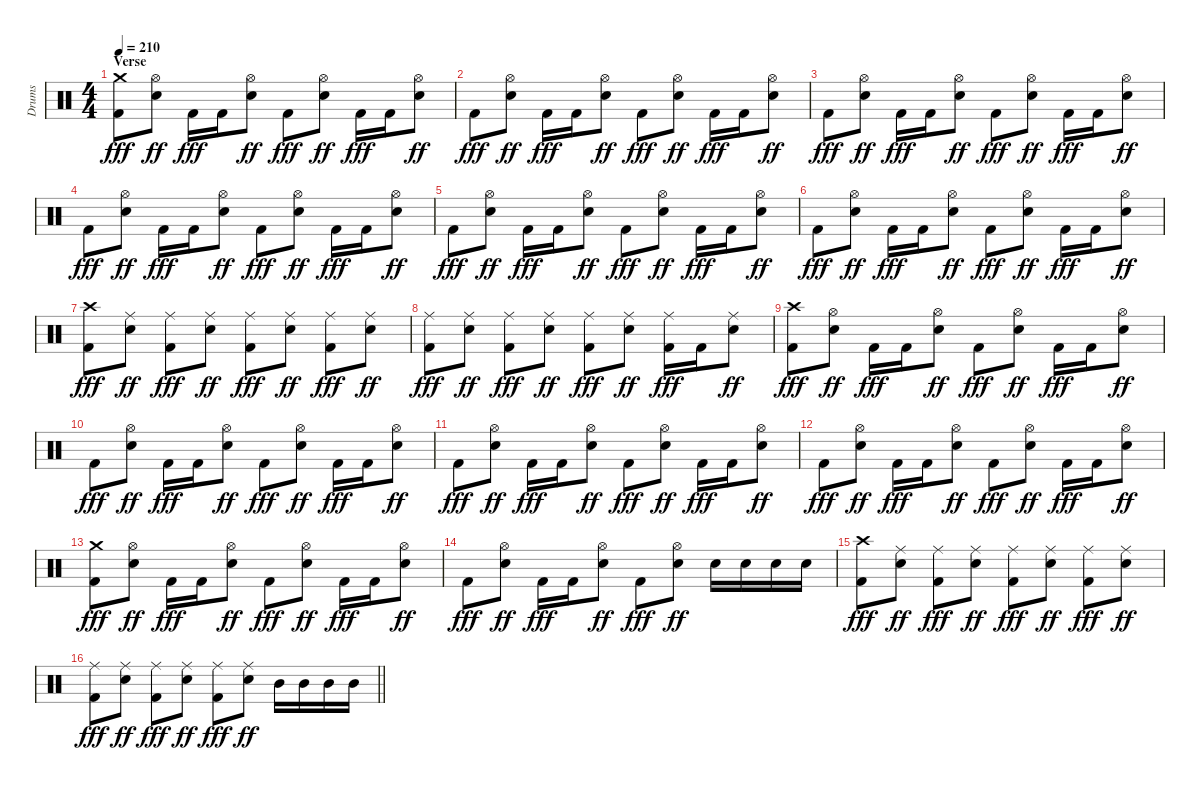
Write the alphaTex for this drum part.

\track ("Drums" "Drums") {instrument percussion}
\staff {score}
\articulation defaults
\ts (4 4)
\section ("" "Verse")
\tempo 210
\clef neutral
\ks c
("Crash medium (hit)" "Kick (hit) 2").8{dy fff} ("Hi-Hat (open)" "Snare (hit) 2").8{dy ff} "Kick (hit) 2".16{dy fff} "Kick (hit) 2".16 ("Hi-Hat (open)" "Snare (hit) 2").8{dy ff} "Kick (hit) 2".8{dy fff} ("Hi-Hat (open)" "Snare (hit) 2").8{dy ff} "Kick (hit) 2".16{dy fff} "Kick (hit) 2".16 ("Hi-Hat (open)" "Snare (hit) 2").8{dy ff} |
"Kick (hit) 2".8{dy fff} ("Hi-Hat (open)" "Snare (hit) 2").8{dy ff} "Kick (hit) 2".16{dy fff} "Kick (hit) 2".16 ("Hi-Hat (open)" "Snare (hit) 2").8{dy ff} "Kick (hit) 2".8{dy fff} ("Hi-Hat (open)" "Snare (hit) 2").8{dy ff} "Kick (hit) 2".16{dy fff} "Kick (hit) 2".16 ("Hi-Hat (open)" "Snare (hit) 2").8{dy ff} |
"Kick (hit) 2".8{dy fff} ("Hi-Hat (open)" "Snare (hit) 2").8{dy ff} "Kick (hit) 2".16{dy fff} "Kick (hit) 2".16 ("Hi-Hat (open)" "Snare (hit) 2").8{dy ff} "Kick (hit) 2".8{dy fff} ("Hi-Hat (open)" "Snare (hit) 2").8{dy ff} "Kick (hit) 2".16{dy fff} "Kick (hit) 2".16 ("Hi-Hat (open)" "Snare (hit) 2").8{dy ff} |
"Kick (hit) 2".8{dy fff} ("Hi-Hat (open)" "Snare (hit) 2").8{dy ff} "Kick (hit) 2".16{dy fff} "Kick (hit) 2".16 ("Hi-Hat (open)" "Snare (hit) 2").8{dy ff} "Kick (hit) 2".8{dy fff} ("Hi-Hat (open)" "Snare (hit) 2").8{dy ff} "Kick (hit) 2".16{dy fff} "Kick (hit) 2".16 ("Hi-Hat (open)" "Snare (hit) 2").8{dy ff} |
"Kick (hit) 2".8{dy fff} ("Hi-Hat (open)" "Snare (hit) 2").8{dy ff} "Kick (hit) 2".16{dy fff} "Kick (hit) 2".16 ("Hi-Hat (open)" "Snare (hit) 2").8{dy ff} "Kick (hit) 2".8{dy fff} ("Hi-Hat (open)" "Snare (hit) 2").8{dy ff} "Kick (hit) 2".16{dy fff} "Kick (hit) 2".16 ("Hi-Hat (open)" "Snare (hit) 2").8{dy ff} |
"Kick (hit) 2".8{dy fff} ("Hi-Hat (open)" "Snare (hit) 2").8{dy ff} "Kick (hit) 2".16{dy fff} "Kick (hit) 2".16 ("Hi-Hat (open)" "Snare (hit) 2").8{dy ff} "Kick (hit) 2".8{dy fff} ("Hi-Hat (open)" "Snare (hit) 2").8{dy ff} "Kick (hit) 2".16{dy fff} "Kick (hit) 2".16 ("Hi-Hat (open)" "Snare (hit) 2").8{dy ff} |
("Crash high (hit)" "Kick (hit) 2").8{dy fff} ("Ride (middle)" "Snare (hit) 2").8{dy ff} ("Ride (middle)" "Kick (hit) 2").8{dy fff} ("Ride (middle)" "Snare (hit) 2").8{dy ff} ("Ride (middle)" "Kick (hit) 2").8{dy fff} ("Ride (middle)" "Snare (hit) 2").8{dy ff} ("Ride (middle)" "Kick (hit) 2").8{dy fff} ("Ride (middle)" "Snare (hit) 2").8{dy ff} |
("Ride (middle)" "Kick (hit) 2").8{dy fff} ("Ride (middle)" "Snare (hit) 2").8{dy ff} ("Ride (middle)" "Kick (hit) 2").8{dy fff} ("Ride (middle)" "Snare (hit) 2").8{dy ff} ("Ride (middle)" "Kick (hit) 2").8{dy fff} ("Ride (middle)" "Snare (hit) 2").8{dy ff} ("Ride (middle)" "Kick (hit) 2").16{dy fff} "Kick (hit) 2".16 ("Ride (middle)" "Snare (hit) 2").8{dy ff} |
("Crash high (hit)" "Kick (hit) 2").8{dy fff} ("Hi-Hat (open)" "Snare (hit) 2").8{dy ff} "Kick (hit) 2".16{dy fff} "Kick (hit) 2".16 ("Hi-Hat (open)" "Snare (hit) 2").8{dy ff} "Kick (hit) 2".8{dy fff} ("Hi-Hat (open)" "Snare (hit) 2").8{dy ff} "Kick (hit) 2".16{dy fff} "Kick (hit) 2".16 ("Hi-Hat (open)" "Snare (hit) 2").8{dy ff} |
"Kick (hit) 2".8{dy fff} ("Hi-Hat (open)" "Snare (hit) 2").8{dy ff} "Kick (hit) 2".16{dy fff} "Kick (hit) 2".16 ("Hi-Hat (open)" "Snare (hit) 2").8{dy ff} "Kick (hit) 2".8{dy fff} ("Hi-Hat (open)" "Snare (hit) 2").8{dy ff} "Kick (hit) 2".16{dy fff} "Kick (hit) 2".16 ("Hi-Hat (open)" "Snare (hit) 2").8{dy ff} |
"Kick (hit) 2".8{dy fff} ("Hi-Hat (open)" "Snare (hit) 2").8{dy ff} "Kick (hit) 2".16{dy fff} "Kick (hit) 2".16 ("Hi-Hat (open)" "Snare (hit) 2").8{dy ff} "Kick (hit) 2".8{dy fff} ("Hi-Hat (open)" "Snare (hit) 2").8{dy ff} "Kick (hit) 2".16{dy fff} "Kick (hit) 2".16 ("Hi-Hat (open)" "Snare (hit) 2").8{dy ff} |
"Kick (hit) 2".8{dy fff} ("Hi-Hat (open)" "Snare (hit) 2").8{dy ff} "Kick (hit) 2".16{dy fff} "Kick (hit) 2".16 ("Hi-Hat (open)" "Snare (hit) 2").8{dy ff} "Kick (hit) 2".8{dy fff} ("Hi-Hat (open)" "Snare (hit) 2").8{dy ff} "Kick (hit) 2".16{dy fff} "Kick (hit) 2".16 ("Hi-Hat (open)" "Snare (hit) 2").8{dy ff} |
("Crash medium (hit)" "Kick (hit) 2").8{dy fff} ("Hi-Hat (open)" "Snare (hit) 2").8{dy ff} "Kick (hit) 2".16{dy fff} "Kick (hit) 2".16 ("Hi-Hat (open)" "Snare (hit) 2").8{dy ff} "Kick (hit) 2".8{dy fff} ("Hi-Hat (open)" "Snare (hit) 2").8{dy ff} "Kick (hit) 2".16{dy fff} "Kick (hit) 2".16 ("Hi-Hat (open)" "Snare (hit) 2").8{dy ff} |
"Kick (hit) 2".8{dy fff} ("Hi-Hat (open)" "Snare (hit) 2").8{dy ff} "Kick (hit) 2".16{dy fff} "Kick (hit) 2".16 ("Hi-Hat (open)" "Snare (hit) 2").8{dy ff} "Kick (hit) 2".8{dy fff} ("Hi-Hat (open)" "Snare (hit) 2").8{dy ff} "Snare (hit) 2".16 "Snare (hit) 2".16 "Snare (hit) 2".16 "Snare (hit) 2".16 |
("Crash high (hit)" "Kick (hit) 2").8{dy fff} ("Ride (middle)" "Snare (hit) 2").8{dy ff} ("Ride (middle)" "Kick (hit) 2").8{dy fff} ("Ride (middle)" "Snare (hit) 2").8{dy ff} ("Ride (middle)" "Kick (hit) 2").8{dy fff} ("Ride (middle)" "Snare (hit) 2").8{dy ff} ("Ride (middle)" "Kick (hit) 2").8{dy fff} ("Ride (middle)" "Snare (hit) 2").8{dy ff} |
\barLineRight lightlight
("Ride (middle)" "Kick (hit) 2").8{dy fff} ("Ride (middle)" "Snare (hit) 2").8{dy ff} ("Ride (middle)" "Kick (hit) 2").8{dy fff} ("Ride (middle)" "Snare (hit) 2").8{dy ff} ("Ride (middle)" "Kick (hit) 2").8{dy fff} ("Ride (middle)" "Snare (hit) 2").8{dy ff} "Mid Tom (hit)".16 "Mid Tom (hit)".16 "Mid Tom (hit)".16 "Mid Tom (hit)".16
